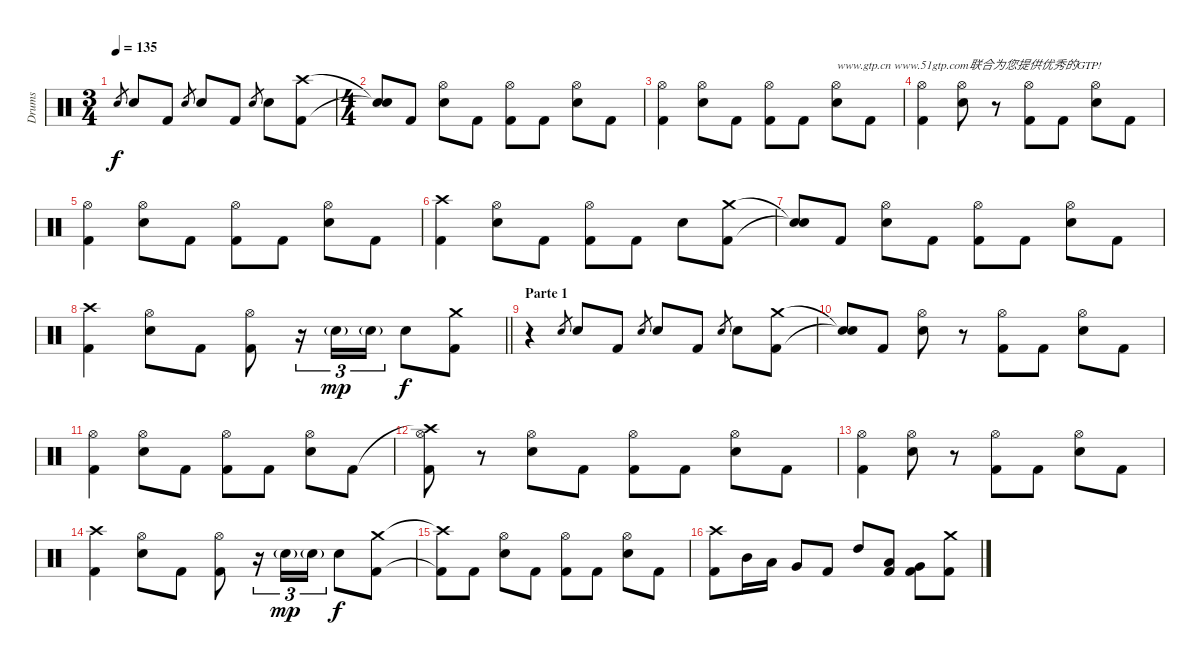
\track ("Drums" "Drums") {instrument percussion}
\staff {score}
\articulation defaults
\ts (3 4)
\tempo 135
\clef neutral
\ks c "Electric Snare (hit)".8{gr dy f} "Electric Snare (hit)".8 "Kick (hit) 2".8 "Electric Snare (hit)".8{gr} "Electric Snare (hit)".8 "Kick (hit) 2".8 "Electric Snare (hit)".8{gr} "Electric Snare (hit)".8
("Crash high (hit)" "Kick (hit) 2").8 |
\ts (4 4)
("Snare (hit)"{t} "Snare (hit)"{t}).8 "Kick (hit) 2".8 ("Hi-Hat (open)" "Electric Snare (hit)").8 "Kick (hit) 2".8 ("Hi-Hat (open)" "Kick (hit) 2").8 "Kick (hit) 2".8 ("Hi-Hat (open)" "Electric Snare (hit)").8 "Kick (hit) 2".8 |
("Hi-Hat (open)" "Kick (hit) 2").4 ("Hi-Hat (open)" "Electric Snare (hit)").8 "Kick (hit) 2".8 ("Hi-Hat (open)" "Kick (hit) 2").8 "Kick (hit) 2".8 ("Hi-Hat (open)" "Electric Snare (hit)").8{txt "www.gtp.cn www.51gtp.com联合为您提供优秀的GTP!"} "Kick (hit) 2".8 |
("Hi-Hat (open)" "Kick (hit) 2").4 ("Hi-Hat (open)" "Electric Snare (hit)").8 r.8 ("Hi-Hat (open)" "Kick (hit) 2").8 "Kick (hit) 2".8 ("Hi-Hat (open)" "Electric Snare (hit)").8 "Kick (hit) 2".8 |
("Hi-Hat (open)" "Kick (hit) 2").4 ("Hi-Hat (open)" "Electric Snare (hit)").8 "Kick (hit) 2".8 ("Hi-Hat (open)" "Kick (hit) 2").8 "Kick (hit) 2".8 ("Hi-Hat (open)" "Electric Snare (hit)").8 "Kick (hit) 2".8 |
("Crash high (hit)" "Kick (hit) 2").4 ("Hi-Hat (open)" "Electric Snare (hit)").8 "Kick (hit) 2".8 ("Hi-Hat (open)" "Kick (hit) 2").8 "Kick (hit) 2".8 "Electric Snare (hit)".8 ("Crash medium (hit)" "Kick (hit) 2").8 |
("Snare (hit)"{t} "Snare (hit)"{t}).8 "Kick (hit) 2".8 ("Hi-Hat (open)" "Electric Snare (hit)").8 "Kick (hit) 2".8 ("Hi-Hat (open)" "Kick (hit) 2").8 "Kick (hit) 2".8 ("Hi-Hat (open)" "Electric Snare (hit)").8 "Kick (hit) 2".8 |
\barLineRight lightlight
("Crash high (hit)" "Kick (hit) 2").4 ("Hi-Hat (open)" "Electric Snare (hit)").8 "Kick (hit) 2".8 ("Hi-Hat (open)" "Kick (hit) 2").8 r.16{tu (3 2)} "Electric Snare (hit)"{g}.16{tu (3 2) dy mp} "Electric Snare (hit)"{g}.16{tu (3 2)} "Electric Snare (hit)".8{dy f} ("Crash medium (hit)" "Kick (hit) 2").8 |
\section ("" "Parte 1")
r.4 "Electric Snare (hit)".8{gr} "Electric Snare (hit)".8 "Kick (hit) 2".8 "Electric Snare (hit)".8{gr} "Electric Snare (hit)".8 "Kick (hit) 2".8 "Electric Snare (hit)".8{gr} "Electric Snare (hit)".8 ("Crash medium (hit)" "Kick (hit) 2").8 |
("Snare (hit)"{t} "Snare (hit)"{t}).8 "Kick (hit) 2".8 ("Hi-Hat (open)" "Electric Snare (hit)").8 r.8 ("Hi-Hat (open)" "Kick (hit) 2").8 "Kick (hit) 2".8 ("Hi-Hat (open)" "Electric Snare (hit)").8 "Kick (hit) 2".8 |
("Hi-Hat (open)" "Kick (hit) 2").4 ("Hi-Hat (open)" "Electric Snare (hit)").8 "Kick (hit) 2".8 ("Hi-Hat (open)" "Kick (hit) 2").8 "Kick (hit) 2".8 ("Hi-Hat (open)" "Electric Snare (hit)").8 "Kick (hit) 2".8 |
("Crash high (hit)"{t} "Hi-Hat (open)" "Kick (hit) 2").8 r.8 ("Hi-Hat (open)" "Electric Snare (hit)").8 "Kick (hit) 2".8 ("Hi-Hat (open)" "Kick (hit) 2").8 "Kick (hit) 2".8 ("Hi-Hat (open)" "Electric Snare (hit)").8 "Kick (hit) 2".8 |
("Hi-Hat (open)" "Kick (hit) 2").4 ("Hi-Hat (open)" "Electric Snare (hit)").8 r.8 ("Hi-Hat (open)" "Kick (hit) 2").8 "Kick (hit) 2".8 ("Hi-Hat (open)" "Electric Snare (hit)").8 "Kick (hit) 2".8 |
("Crash high (hit)" "Kick (hit) 2").4 ("Hi-Hat (open)" "Electric Snare (hit)").8 "Kick (hit) 2".8 ("Hi-Hat (open)" "Kick (hit) 2").8 r.16{tu (3 2)} "Electric Snare (hit)"{g}.16{tu (3 2) dy mp} "Electric Snare (hit)"{g}.16{tu (3 2)} "Electric Snare (hit)".8{dy f} ("Crash medium (hit)" "Kick (hit) 2").8 |
("Crash high (hit)"{t} "Kick (hit) 2"{t}).8 "Kick (hit) 2".8 ("Hi-Hat (open)" "Electric Snare (hit)").8 "Kick (hit) 2".8 ("Hi-Hat (open)" "Kick (hit) 2").8 "Kick (hit) 2".8 ("Hi-Hat (open)" "Electric Snare (hit)").8 "Kick (hit) 2".8 |
("Crash high (hit)" "Kick (hit) 2").8 "Mid Tom (hit)".16 "Low Tom (hit)".16 "Very Low Tom (hit)".8 "Kick (hit) 2".8 "High Tom (hit)".8 ("Low Tom (hit)" "Kick (hit) 2").8 ("Very Low Tom (hit)" "Kick (hit) 2").8 ("Crash medium (hit)" "Kick (hit) 2").8
